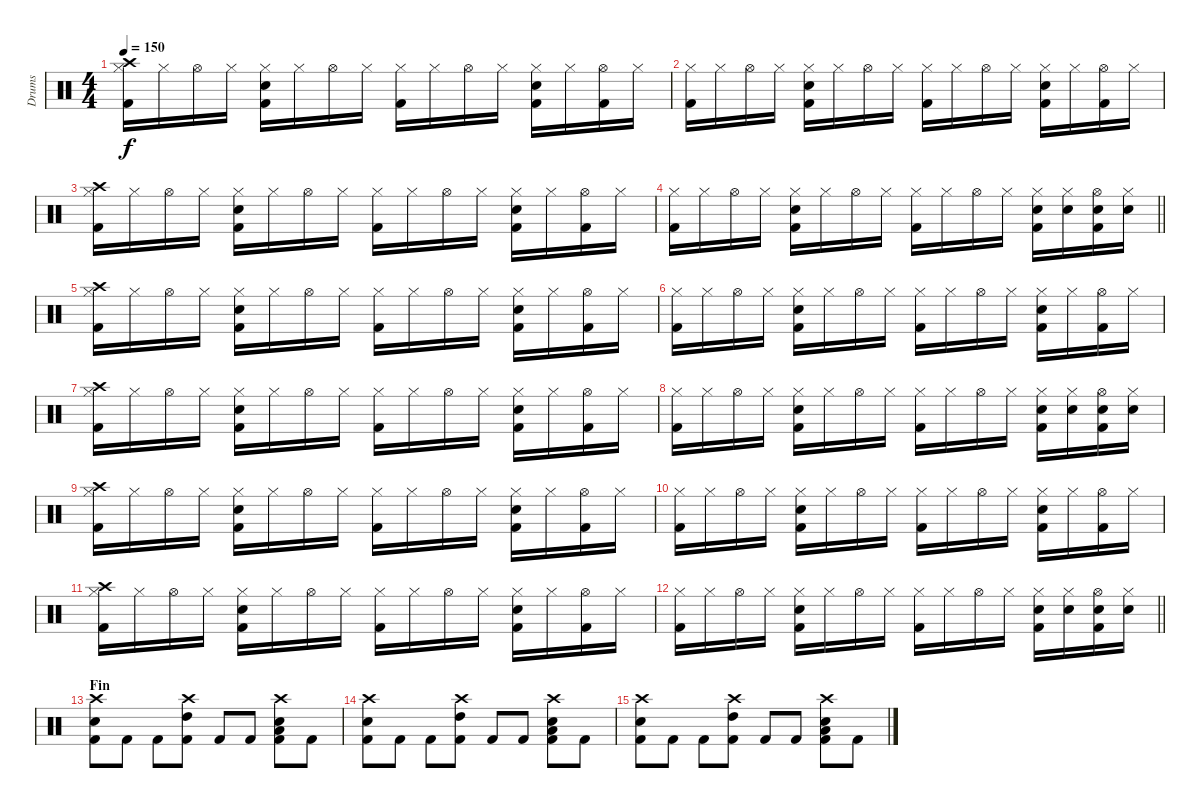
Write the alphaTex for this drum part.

\track ("Drums" "Drums") {instrument percussion}
\staff {score}
\articulation defaults
\ts (4 4)
\tempo 150
\clef neutral
\ks c
("Crash high (hit)" "Hi-Hat (closed)" "Kick (hit) 2").16{dy f} "Hi-Hat (closed)".16 "Hi-Hat (open)".16 "Hi-Hat (closed)".16 ("Hi-Hat (closed)" "Electric Snare (hit)" "Kick (hit) 2").16 "Hi-Hat (closed)".16 "Hi-Hat (open)".16 "Hi-Hat (closed)".16 ("Hi-Hat (closed)" "Kick (hit) 2").16 "Hi-Hat (closed)".16 "Hi-Hat (open)".16 "Hi-Hat (closed)".16 ("Hi-Hat (closed)" "Electric Snare (hit)" "Kick (hit) 2").16 "Hi-Hat (closed)".16 ("Hi-Hat (open)" "Kick (hit) 2").16 "Hi-Hat (closed)".16 |
("Hi-Hat (closed)" "Kick (hit) 2").16 "Hi-Hat (closed)".16 "Hi-Hat (open)".16 "Hi-Hat (closed)".16 ("Hi-Hat (closed)" "Electric Snare (hit)" "Kick (hit) 2").16 "Hi-Hat (closed)".16 "Hi-Hat (open)".16 "Hi-Hat (closed)".16 ("Hi-Hat (closed)" "Kick (hit) 2").16 "Hi-Hat (closed)".16 "Hi-Hat (open)".16 "Hi-Hat (closed)".16 ("Hi-Hat (closed)" "Electric Snare (hit)" "Kick (hit) 2").16 "Hi-Hat (closed)".16 ("Hi-Hat (open)" "Kick (hit) 2").16 "Hi-Hat (closed)".16 |
("Crash high (hit)" "Hi-Hat (closed)" "Kick (hit) 2").16 "Hi-Hat (closed)".16 "Hi-Hat (open)".16 "Hi-Hat (closed)".16 ("Hi-Hat (closed)" "Electric Snare (hit)" "Kick (hit) 2").16 "Hi-Hat (closed)".16 "Hi-Hat (open)".16 "Hi-Hat (closed)".16 ("Hi-Hat (closed)" "Kick (hit) 2").16 "Hi-Hat (closed)".16 "Hi-Hat (open)".16 "Hi-Hat (closed)".16 ("Hi-Hat (closed)" "Electric Snare (hit)" "Kick (hit) 2").16 "Hi-Hat (closed)".16 ("Hi-Hat (open)" "Kick (hit) 2").16 "Hi-Hat (closed)".16 |
\barLineRight lightlight
("Hi-Hat (closed)" "Kick (hit) 2").16 "Hi-Hat (closed)".16 "Hi-Hat (open)".16 "Hi-Hat (closed)".16 ("Hi-Hat (closed)" "Electric Snare (hit)" "Kick (hit) 2").16 "Hi-Hat (closed)".16 "Hi-Hat (open)".16 "Hi-Hat (closed)".16 ("Hi-Hat (closed)" "Kick (hit) 2").16 "Hi-Hat (closed)".16 "Hi-Hat (open)".16 "Hi-Hat (closed)".16 ("Hi-Hat (closed)" "Electric Snare (hit)" "Kick (hit) 2").16 ("Hi-Hat (closed)" "Electric Snare (hit)").16 ("Hi-Hat (open)" "Electric Snare (hit)" "Kick (hit) 2").16 ("Hi-Hat (closed)" "Electric Snare (hit)").16 |
("Crash high (hit)" "Hi-Hat (closed)" "Kick (hit) 2").16 "Hi-Hat (closed)".16 "Hi-Hat (open)".16 "Hi-Hat (closed)".16 ("Hi-Hat (closed)" "Electric Snare (hit)" "Kick (hit) 2").16 "Hi-Hat (closed)".16 "Hi-Hat (open)".16 "Hi-Hat (closed)".16 ("Hi-Hat (closed)" "Kick (hit) 2").16 "Hi-Hat (closed)".16 "Hi-Hat (open)".16 "Hi-Hat (closed)".16 ("Hi-Hat (closed)" "Electric Snare (hit)" "Kick (hit) 2").16 "Hi-Hat (closed)".16 ("Hi-Hat (open)" "Kick (hit) 2").16 "Hi-Hat (closed)".16 |
("Hi-Hat (closed)" "Kick (hit) 2").16 "Hi-Hat (closed)".16 "Hi-Hat (open)".16 "Hi-Hat (closed)".16 ("Hi-Hat (closed)" "Electric Snare (hit)" "Kick (hit) 2").16 "Hi-Hat (closed)".16 "Hi-Hat (open)".16 "Hi-Hat (closed)".16 ("Hi-Hat (closed)" "Kick (hit) 2").16 "Hi-Hat (closed)".16 "Hi-Hat (open)".16 "Hi-Hat (closed)".16 ("Hi-Hat (closed)" "Electric Snare (hit)" "Kick (hit) 2").16 "Hi-Hat (closed)".16 ("Hi-Hat (open)" "Kick (hit) 2").16 "Hi-Hat (closed)".16 |
("Crash high (hit)" "Hi-Hat (closed)" "Kick (hit) 2").16 "Hi-Hat (closed)".16 "Hi-Hat (open)".16 "Hi-Hat (closed)".16 ("Hi-Hat (closed)" "Electric Snare (hit)" "Kick (hit) 2").16 "Hi-Hat (closed)".16 "Hi-Hat (open)".16 "Hi-Hat (closed)".16 ("Hi-Hat (closed)" "Kick (hit) 2").16 "Hi-Hat (closed)".16 "Hi-Hat (open)".16 "Hi-Hat (closed)".16 ("Hi-Hat (closed)" "Electric Snare (hit)" "Kick (hit) 2").16 "Hi-Hat (closed)".16 ("Hi-Hat (open)" "Kick (hit) 2").16 "Hi-Hat (closed)".16 |
("Hi-Hat (closed)" "Kick (hit) 2").16 "Hi-Hat (closed)".16 "Hi-Hat (open)".16 "Hi-Hat (closed)".16 ("Hi-Hat (closed)" "Electric Snare (hit)" "Kick (hit) 2").16 "Hi-Hat (closed)".16 "Hi-Hat (open)".16 "Hi-Hat (closed)".16 ("Hi-Hat (closed)" "Kick (hit) 2").16 "Hi-Hat (closed)".16 "Hi-Hat (open)".16 "Hi-Hat (closed)".16 ("Hi-Hat (closed)" "Electric Snare (hit)" "Kick (hit) 2").16 ("Hi-Hat (closed)" "Electric Snare (hit)").16 ("Hi-Hat (open)" "Electric Snare (hit)" "Kick (hit) 2").16 ("Hi-Hat (closed)" "Electric Snare (hit)").16 |
("Crash high (hit)" "Hi-Hat (closed)" "Kick (hit) 2").16 "Hi-Hat (closed)".16 "Hi-Hat (open)".16 "Hi-Hat (closed)".16 ("Hi-Hat (closed)" "Electric Snare (hit)" "Kick (hit) 2").16 "Hi-Hat (closed)".16 "Hi-Hat (open)".16 "Hi-Hat (closed)".16 ("Hi-Hat (closed)" "Kick (hit) 2").16 "Hi-Hat (closed)".16 "Hi-Hat (open)".16 "Hi-Hat (closed)".16 ("Hi-Hat (closed)" "Electric Snare (hit)" "Kick (hit) 2").16 "Hi-Hat (closed)".16 ("Hi-Hat (open)" "Kick (hit) 2").16 "Hi-Hat (closed)".16 |
("Hi-Hat (closed)" "Kick (hit) 2").16 "Hi-Hat (closed)".16 "Hi-Hat (open)".16 "Hi-Hat (closed)".16 ("Hi-Hat (closed)" "Electric Snare (hit)" "Kick (hit) 2").16 "Hi-Hat (closed)".16 "Hi-Hat (open)".16 "Hi-Hat (closed)".16 ("Hi-Hat (closed)" "Kick (hit) 2").16 "Hi-Hat (closed)".16 "Hi-Hat (open)".16 "Hi-Hat (closed)".16 ("Hi-Hat (closed)" "Electric Snare (hit)" "Kick (hit) 2").16 "Hi-Hat (closed)".16 ("Hi-Hat (open)" "Kick (hit) 2").16 "Hi-Hat (closed)".16 |
("Crash high (hit)" "Hi-Hat (closed)" "Kick (hit) 2").16 "Hi-Hat (closed)".16 "Hi-Hat (open)".16 "Hi-Hat (closed)".16 ("Hi-Hat (closed)" "Electric Snare (hit)" "Kick (hit) 2").16 "Hi-Hat (closed)".16 "Hi-Hat (open)".16 "Hi-Hat (closed)".16 ("Hi-Hat (closed)" "Kick (hit) 2").16 "Hi-Hat (closed)".16 "Hi-Hat (open)".16 "Hi-Hat (closed)".16 ("Hi-Hat (closed)" "Electric Snare (hit)" "Kick (hit) 2").16 "Hi-Hat (closed)".16 ("Hi-Hat (open)" "Kick (hit) 2").16 "Hi-Hat (closed)".16 |
\barLineRight lightlight
("Hi-Hat (closed)" "Kick (hit) 2").16 "Hi-Hat (closed)".16 "Hi-Hat (open)".16 "Hi-Hat (closed)".16 ("Hi-Hat (closed)" "Electric Snare (hit)" "Kick (hit) 2").16 "Hi-Hat (closed)".16 "Hi-Hat (open)".16 "Hi-Hat (closed)".16 ("Hi-Hat (closed)" "Kick (hit) 2").16 "Hi-Hat (closed)".16 "Hi-Hat (open)".16 "Hi-Hat (closed)".16 ("Hi-Hat (closed)" "Electric Snare (hit)" "Kick (hit) 2").16 ("Hi-Hat (closed)" "Electric Snare (hit)").16 ("Hi-Hat (open)" "Electric Snare (hit)" "Kick (hit) 2").16 ("Hi-Hat (closed)" "Electric Snare (hit)").16 |
\section ("" "Fin")
("Crash high (hit)" "Electric Snare (hit)" "Kick (hit) 2").8 "Kick (hit) 2".8 "Kick (hit) 2".8 ("Crash high (hit)" "High Tom (hit)" "Kick (hit) 2").8 "Kick (hit) 2".8 "Kick (hit) 2".8 ("Crash high (hit)" "Low Tom (hit)" "Electric Snare (hit)" "Kick (hit) 2").8 "Kick (hit) 2".8 |
("Crash high (hit)" "Electric Snare (hit)" "Kick (hit) 2").8 "Kick (hit) 2".8 "Kick (hit) 2".8 ("Crash high (hit)" "High Tom (hit)" "Kick (hit) 2").8 "Kick (hit) 2".8 "Kick (hit) 2".8 ("Crash high (hit)" "Low Tom (hit)" "Electric Snare (hit)" "Kick (hit) 2").8 "Kick (hit) 2".8 |
("Crash high (hit)" "Electric Snare (hit)" "Kick (hit) 2").8 "Kick (hit) 2".8 "Kick (hit) 2".8 ("Crash high (hit)" "High Tom (hit)" "Kick (hit) 2").8 "Kick (hit) 2".8 "Kick (hit) 2".8 ("Crash high (hit)" "Low Tom (hit)" "Electric Snare (hit)" "Kick (hit) 2").8 "Kick (hit) 2".8
